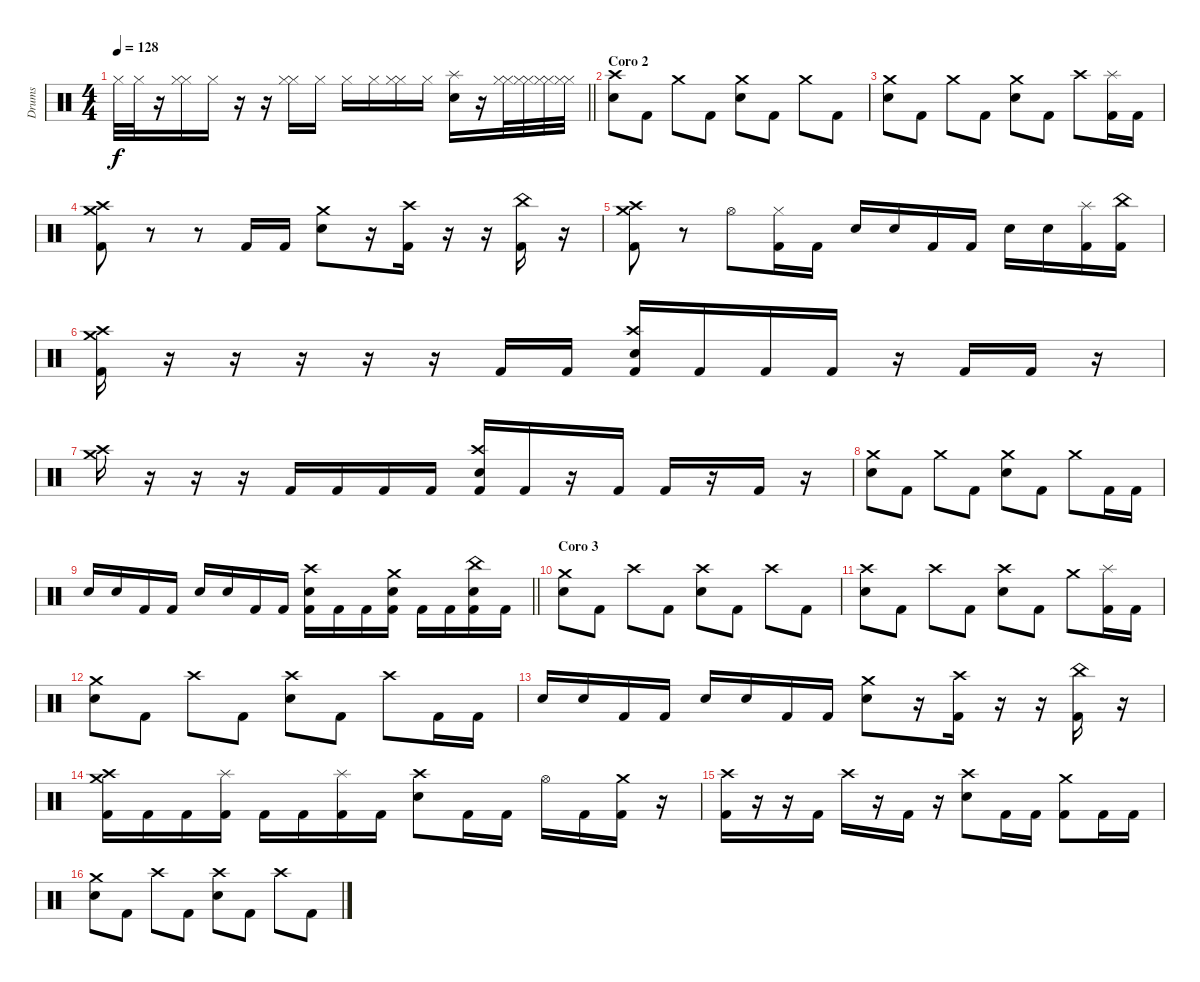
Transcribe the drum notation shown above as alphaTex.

\track ("Drums" "Drums") {instrument percussion}
\staff {score}
\articulation defaults
\ts (4 4)
\tempo 128
\clef neutral
\barLineRight lightlight
\ks c "Hi-Hat (closed)".32{dy f} "Hi-Hat (closed)".32
r.16 ("Hi-Hat (closed)" "Hi-Hat (closed)").16 "Hi-Hat (closed)".16 r.16 r.16 ("Hi-Hat (closed)" "Hi-Hat (closed)").16 "Hi-Hat (closed)".16 "Hi-Hat (closed)".16 "Hi-Hat (closed)".16 ("Hi-Hat (closed)" "Hi-Hat (closed)").16 "Hi-Hat (closed)".16 ("Splash (hit)" "Electric Snare (hit)").16 r.16 ("Hi-Hat (closed)" "Hi-Hat (closed)").32 ("Hi-Hat (closed)" "Hi-Hat (closed)").32 ("Hi-Hat (closed)" "Hi-Hat (closed)").32 ("Hi-Hat (closed)" "Hi-Hat (closed)").32 |
\section ("" "Coro 2")
("Crash high (hit)" "Electric Snare (hit)").8 "Kick (hit) 2".8 "Crash medium (hit)".8 "Kick (hit) 2".8 ("Crash medium (hit)" "Electric Snare (hit)").8 "Kick (hit) 2".8 "Crash medium (hit)".8 "Kick (hit) 2".8 |
("Crash medium (hit)" "Electric Snare (hit)").8 "Kick (hit) 2".8 "Crash medium (hit)".8 "Kick (hit) 2".8 ("Crash medium (hit)" "Electric Snare (hit)").8 "Kick (hit) 2".8 "Crash high (hit)".8 ("Splash (hit)" "Kick (hit) 2").16 "Kick (hit) 2".16 |
("Crash medium (hit)" "Crash high (hit)" "Kick (hit) 2").8 r.8 r.8 "Kick (hit) 2".16 "Kick (hit) 2".16 ("Crash medium (hit)" "Electric Snare (hit)").8 r.16 ("Crash high (hit)" "Kick (hit) 2").16 r.16 r.16 ("China (hit)" "Kick (hit) 2").16 r.16 |
("Crash medium (hit)" "Crash high (hit)" "Kick (hit) 2").8 r.8 "Hi-Hat (open)".8 ("Hi-Hat (closed)" "Kick (hit) 2").16 "Kick (hit) 2".16 "Electric Snare (hit)".16 "Electric Snare (hit)".16 "Kick (hit) 2".16 "Kick (hit) 2".16 "Electric Snare (hit)".16 "Electric Snare (hit)".16 ("Splash (hit)" "Kick (hit) 2").16 ("China (hit)" "Kick (hit) 2").16 |
("Crash high (hit)" "Crash medium (hit)" "Kick (hit) 2").16 r.16 r.16 r.16 r.16 r.16 "Kick (hit) 2".16 "Kick (hit) 2".16 ("Crash high (hit)" "Electric Snare (hit)" "Kick (hit) 2").16 "Kick (hit) 2".16 "Kick (hit) 2".16 "Kick (hit) 2".16 r.16 "Kick (hit) 2".16 "Kick (hit) 2".16 r.16 |
("Crash high (hit)" "Crash medium (hit)").16 r.16 r.16 r.16 "Kick (hit) 2".16 "Kick (hit) 2".16 "Kick (hit) 2".16 "Kick (hit) 2".16 ("Crash high (hit)" "Electric Snare (hit)" "Kick (hit) 2").16 "Kick (hit) 2".16 r.16 "Kick (hit) 2".16 "Kick (hit) 2".16 r.16 "Kick (hit) 2".16 r.16 |
("Crash medium (hit)" "Electric Snare (hit)").8 "Kick (hit) 2".8 "Crash medium (hit)".8 "Kick (hit) 2".8 ("Crash medium (hit)" "Electric Snare (hit)").8 "Kick (hit) 2".8 "Crash medium (hit)".8 "Kick (hit) 2".16 "Kick (hit) 2".16 |
\barLineRight lightlight "Electric Snare (hit)".16 "Electric Snare (hit)".16 "Kick (hit) 2".16 "Kick (hit) 2".16 "Electric Snare (hit)".16 "Electric Snare (hit)".16 "Kick (hit) 2".16 "Kick (hit) 2".16
("Crash high (hit)" "Electric Snare (hit)" "Kick (hit) 2").16 "Kick (hit) 2".16 "Kick (hit) 2".16 ("Crash medium (hit)" "Electric Snare (hit)" "Kick (hit) 2").16 "Kick (hit) 2".16 "Kick (hit) 2".16 ("China (hit)" "Electric Snare (hit)" "Kick (hit) 2").16 "Kick (hit) 2".16 |
\section ("" "Coro 3")
("Crash medium (hit)" "Electric Snare (hit)").8 "Kick (hit) 2".8 "Crash high (hit)".8 "Kick (hit) 2".8 ("Crash high (hit)" "Electric Snare (hit)").8 "Kick (hit) 2".8 "Crash high (hit)".8 "Kick (hit) 2".8 |
("Crash high (hit)" "Electric Snare (hit)").8 "Kick (hit) 2".8 "Crash high (hit)".8 "Kick (hit) 2".8 ("Crash high (hit)" "Electric Snare (hit)").8 "Kick (hit) 2".8 "Crash medium (hit)".8 ("Splash (hit)" "Kick (hit) 2").16 "Kick (hit) 2".16 |
("Crash medium (hit)" "Electric Snare (hit)").8 "Kick (hit) 2".8 "Crash high (hit)".8 "Kick (hit) 2".8 ("Crash high (hit)" "Electric Snare (hit)").8 "Kick (hit) 2".8 "Crash high (hit)".8 "Kick (hit) 2".16 "Kick (hit) 2".16 |
"Electric Snare (hit)".16 "Electric Snare (hit)".16 "Kick (hit) 2".16 "Kick (hit) 2".16 "Electric Snare (hit)".16 "Electric Snare (hit)".16 "Kick (hit) 2".16 "Kick (hit) 2".16 ("Crash medium (hit)" "Electric Snare (hit)").8 r.16 ("Crash high (hit)" "Kick (hit) 2").16 r.16 r.16 ("China (hit)" "Kick (hit) 2").16 r.16 |
("Crash medium (hit)" "Crash high (hit)" "Kick (hit) 2").16 "Kick (hit) 2".16 "Kick (hit) 2".16 ("Splash (hit)" "Kick (hit) 2").16 "Kick (hit) 2".16 "Kick (hit) 2".16 ("Splash (hit)" "Kick (hit) 2").16 "Kick (hit) 2".16 ("Crash high (hit)" "Electric Snare (hit)").8 "Kick (hit) 2".16 "Kick (hit) 2".16 "Hi-Hat (open)".16 "Kick (hit) 2".16 ("Crash medium (hit)" "Kick (hit) 2").16 r.16 |
("Crash high (hit)" "Kick (hit) 2").16 r.16 r.16 "Kick (hit) 2".16 "Crash high (hit)".16 r.16 "Kick (hit) 2".16 r.16 ("Crash high (hit)" "Electric Snare (hit)").8 "Kick (hit) 2".16 "Kick (hit) 2".16 ("Crash medium (hit)" "Kick (hit) 2").8 "Kick (hit) 2".16 "Kick (hit) 2".16 |
("Crash medium (hit)" "Electric Snare (hit)").8 "Kick (hit) 2".8 "Crash high (hit)".8 "Kick (hit) 2".8 ("Crash high (hit)" "Electric Snare (hit)").8 "Kick (hit) 2".8 "Crash high (hit)".8 "Kick (hit) 2".8
